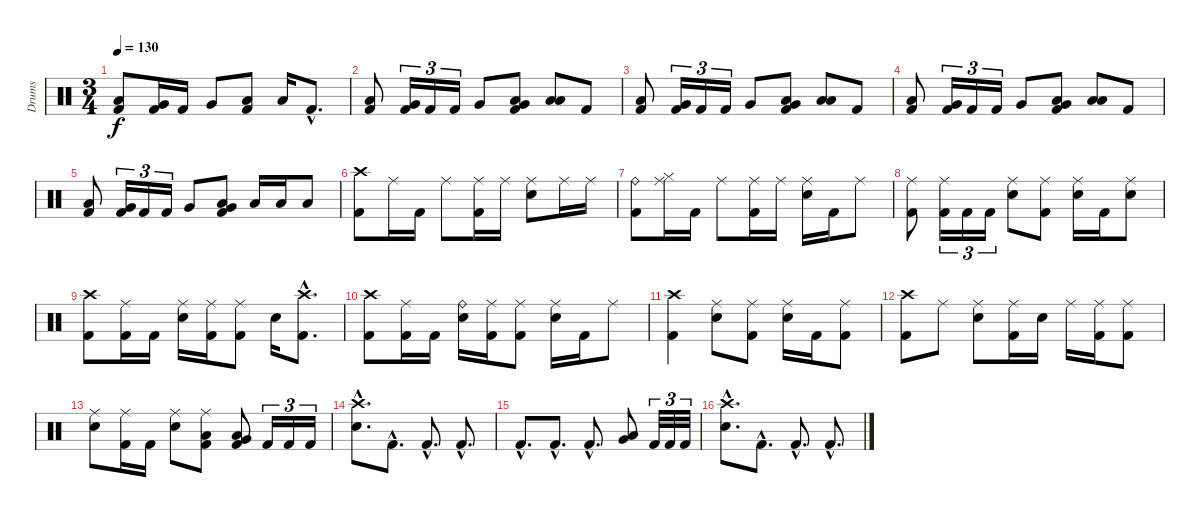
\track ("Drums" "Drums") {instrument percussion}
\staff {score}
\articulation defaults
\ts (3 4)
\tempo 130
\clef neutral
\ks c
("Low Floor Tom (hit)" "Kick (hit) 2").8{dy f} ("Very Low Tom (hit)" "Kick (hit) 2").16 "Kick (hit) 2".16 "Very Low Tom (hit)".8 ("Low Floor Tom (hit)" "Kick (hit) 2").8 "Low Tom (hit)".16 "Kick (hit) 2"{hac}.8{d} |
("Low Floor Tom (hit)" "Kick (hit) 2").8 ("Very Low Tom (hit)" "Kick (hit) 2").16{tu (3 2)} "Kick (hit) 2".16{tu (3 2)} "Kick (hit) 2".16{tu (3 2)} "Very Low Tom (hit)".8 ("Low Floor Tom (hit)" "Very Low Tom (hit)" "Kick (hit) 2").8 ("Low Tom (hit)" "Low Floor Tom (hit)").8 "Kick (hit) 2".8 |
("Low Floor Tom (hit)" "Kick (hit) 2").8 ("Very Low Tom (hit)" "Kick (hit) 2").16{tu (3 2)} "Kick (hit) 2".16{tu (3 2)} "Kick (hit) 2".16{tu (3 2)} "Very Low Tom (hit)".8 ("Low Floor Tom (hit)" "Very Low Tom (hit)" "Kick (hit) 2").8 ("Low Tom (hit)" "Low Floor Tom (hit)").8 "Kick (hit) 2".8 |
("Low Floor Tom (hit)" "Kick (hit) 2").8 ("Very Low Tom (hit)" "Kick (hit) 2").16{tu (3 2)} "Kick (hit) 2".16{tu (3 2)} "Kick (hit) 2".16{tu (3 2)} "Very Low Tom (hit)".8 ("Low Floor Tom (hit)" "Very Low Tom (hit)" "Kick (hit) 2").8 ("Low Tom (hit)" "Low Floor Tom (hit)").8 "Kick (hit) 2".8 |
("Low Floor Tom (hit)" "Kick (hit) 2").8 ("Very Low Tom (hit)" "Kick (hit) 2").16{tu (3 2)} "Kick (hit) 2".16{tu (3 2)} "Kick (hit) 2".16{tu (3 2)} "Very Low Tom (hit)".8 ("Low Floor Tom (hit)" "Very Low Tom (hit)" "Kick (hit) 2").8 "Low Tom (hit)".16 "Low Tom (hit)".16 "Low Tom (hit)".8 |
("Crash high (hit)" "Kick (hit) 2").8 "Ride (middle)".16 "Kick (hit) 2".16 "Ride (middle)".8 ("Ride (middle)" "Kick (hit) 2").16 "Ride (middle)".16 ("Ride (middle)" "Snare (hit) 2").8 "Ride (middle)".16 "Ride (middle)".16 |
("Ride (bell)" "Kick (hit) 2").8 ("Ride (middle)" "Hi-Hat (closed)").16 "Kick (hit) 2".16 "Ride (middle)".8 ("Ride (middle)" "Kick (hit) 2").16 "Ride (middle)".16 ("Ride (middle)" "Snare (hit) 2").16 "Kick (hit) 2".16 "Ride (middle)".8 |
("Ride (middle)" "Kick (hit) 2").8 ("Ride (middle)" "Kick (hit) 2").16{tu (3 2)} "Kick (hit) 2".16{tu (3 2)} "Kick (hit) 2".16{tu (3 2)} ("Ride (middle)" "Snare (hit) 2").8 ("Ride (middle)" "Kick (hit) 2").8 ("Ride (middle)" "Snare (hit) 2").16 "Kick (hit) 2".16 ("Ride (middle)" "Snare (hit) 2").8 |
("Crash high (hit)" "Kick (hit) 2").8 ("Ride (middle)" "Kick (hit) 2").16 "Kick (hit) 2".16 ("Ride (middle)" "Snare (hit) 2").16 ("Ride (middle)" "Kick (hit) 2").16 ("Ride (middle)" "Kick (hit) 2").8 "Snare (hit) 2".16 ("Crash high (hit)"{hac} "Kick (hit) 2"{hac}).8{d} |
("Crash high (hit)" "Kick (hit) 2").8 ("Ride (middle)" "Kick (hit) 2").16 "Kick (hit) 2".16 ("Ride (bell)" "Snare (hit) 2").16 ("Ride (middle)" "Kick (hit) 2").16 ("Ride (middle)" "Kick (hit) 2").8 ("Ride (middle)" "Snare (hit) 2").16 "Kick (hit) 2".16 "Ride (middle)".8 |
("Crash high (hit)" "Kick (hit) 2").4 ("Ride (middle)" "Snare (hit) 2").8 ("Ride (middle)" "Kick (hit) 2").8 ("Ride (middle)" "Snare (hit) 2").16 "Kick (hit) 2".16 ("Ride (middle)" "Kick (hit) 2").8 |
("Crash high (hit)" "Kick (hit) 2").8 "Ride (middle)".8 ("Ride (middle)" "Snare (hit) 2").8 ("Ride (middle)" "Kick (hit) 2").16 "Snare (hit) 2".16 "Ride (middle)".16 ("Ride (middle)" "Kick (hit) 2").16 ("Ride (middle)" "Kick (hit) 2").8 |
("Ride (middle)" "Snare (hit) 2").8 ("Ride (middle)" "Kick (hit) 2").16 "Kick (hit) 2".16 ("Ride (middle)" "Snare (hit) 2").8 ("Ride (middle)" "Low Tom (hit)" "Kick (hit) 2").8 ("Low Tom (hit)" "Very Low Tom (hit)" "Kick (hit) 2").8 "Kick (hit) 2".16{tu (3 2)} "Kick (hit) 2".16{tu (3 2)} "Kick (hit) 2".16{tu (3 2)} |
("Crash high (hit)"{hac} "Snare (hit) 2"{hac}).8{d} "Kick (hit) 2"{hac}.8{d} "Kick (hit) 2"{hac}.8{d} "Kick (hit) 2"{hac}.8{d} |
"Kick (hit) 2"{hac}.8{d} "Kick (hit) 2"{hac}.8{d} "Kick (hit) 2"{hac}.8{d} ("Low Floor Tom (hit)" "Very Low Tom (hit)").8 "Kick (hit) 2".32{tu (3 2)} "Kick (hit) 2".32{tu (3 2)} "Kick (hit) 2".32{tu (3 2)} |
("Crash high (hit)"{hac} "Snare (hit) 2"{hac}).8{d} "Kick (hit) 2"{hac}.8{d} "Kick (hit) 2"{hac}.8{d} "Kick (hit) 2"{hac}.8{d}
